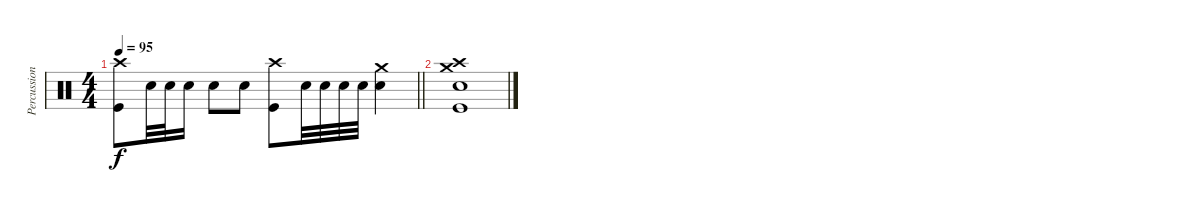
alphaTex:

\track ("Percussion" "Percussion") {instrument percussion}
\staff {score}
\articulation defaults
\ts (4 4)
\tempo 95
\clef neutral
\barLineRight lightlight
\ks c
("Kick (hit)" "Crash high (hit)").8{dy f} "Electric Snare (hit)".32 "Electric Snare (hit)".32 "Electric Snare (hit)".16 "Electric Snare (hit)".8 "Electric Snare (hit)".8 ("Kick (hit)" "Crash high (hit)").8 "Electric Snare (hit)".32 "Electric Snare (hit)".32 "Electric Snare (hit)".32 "Electric Snare (hit)".32 ("Electric Snare (hit)" "Crash medium (hit)").4 |
("Electric Snare (hit)" "Kick (hit)" "Crash medium (hit)" "Crash high (hit)").1
